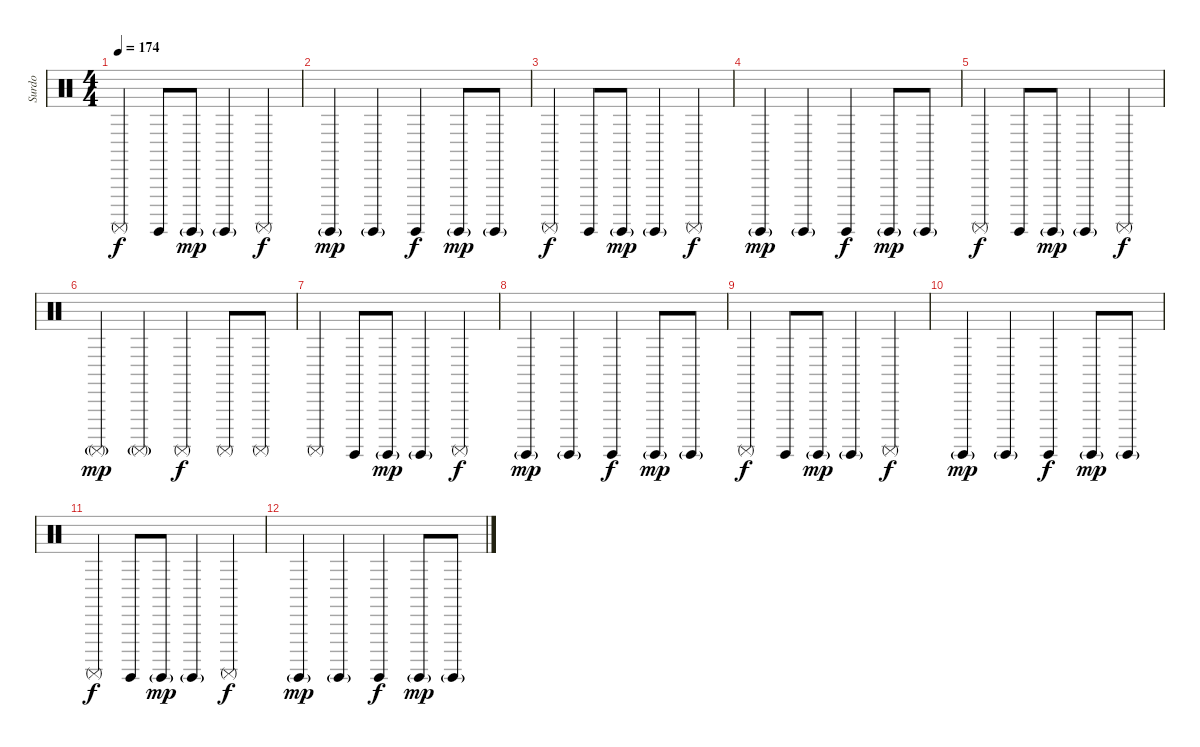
\track ("Surdo" "Surdo") {instrument percussion}
\staff {score}
\articulation defaults
\ts (4 4)
\tempo 174
\clef neutral
\ks c "Surdo (mute)".4{dy f} "Surdo (hit)".8 "Surdo (hit)"{g}.8{dy mp} "Surdo (hit)"{g}.4 "Surdo (mute)".4{dy f}
|
"Surdo (hit)"{g}.4{dy mp} "Surdo (hit)"{g}.4 "Surdo (hit)".4{dy f} "Surdo (hit)"{g}.8{dy mp} "Surdo (hit)"{g}.8 |
"Surdo (mute)".4{dy f} "Surdo (hit)".8 "Surdo (hit)"{g}.8{dy mp} "Surdo (hit)"{g}.4 "Surdo (mute)".4{dy f} |
"Surdo (hit)"{g}.4{dy mp} "Surdo (hit)"{g}.4 "Surdo (hit)".4{dy f} "Surdo (hit)"{g}.8{dy mp} "Surdo (hit)"{g}.8 |
"Surdo (mute)".4{dy f} "Surdo (hit)".8 "Surdo (hit)"{g}.8{dy mp} "Surdo (hit)"{g}.4 "Surdo (mute)".4{dy f} |
"Surdo (mute)"{g}.4{dy mp} "Surdo (mute)"{g}.4 "Surdo (mute)".4{dy f} "Surdo (mute)".8 "Surdo (mute)".8 |
"Surdo (mute)".4 "Surdo (hit)".8 "Surdo (hit)"{g}.8{dy mp} "Surdo (hit)"{g}.4 "Surdo (mute)".4{dy f} |
"Surdo (hit)"{g}.4{dy mp} "Surdo (hit)"{g}.4 "Surdo (hit)".4{dy f} "Surdo (hit)"{g}.8{dy mp} "Surdo (hit)"{g}.8 |
"Surdo (mute)".4{dy f} "Surdo (hit)".8 "Surdo (hit)"{g}.8{dy mp} "Surdo (hit)"{g}.4 "Surdo (mute)".4{dy f} |
"Surdo (hit)"{g}.4{dy mp} "Surdo (hit)"{g}.4 "Surdo (hit)".4{dy f} "Surdo (hit)"{g}.8{dy mp} "Surdo (hit)"{g}.8 |
"Surdo (mute)".4{dy f} "Surdo (hit)".8 "Surdo (hit)"{g}.8{dy mp} "Surdo (hit)"{g}.4 "Surdo (mute)".4{dy f} |
"Surdo (hit)"{g}.4{dy mp} "Surdo (hit)"{g}.4 "Surdo (hit)".4{dy f} "Surdo (hit)"{g}.8{dy mp} "Surdo (hit)"{g}.8
